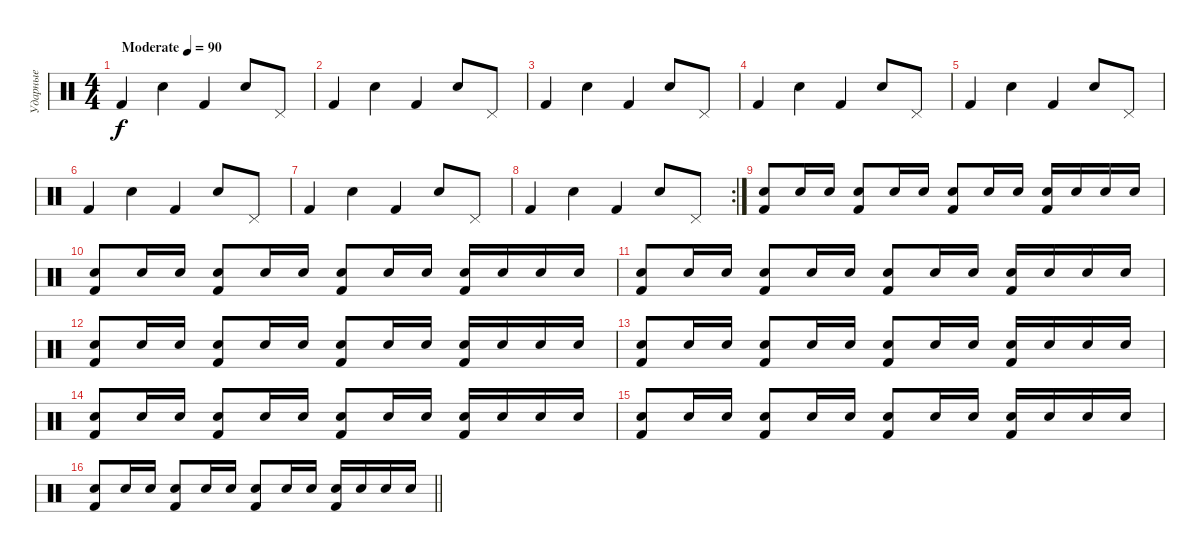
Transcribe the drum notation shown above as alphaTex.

\track ("Ударные" "Ударные") {instrument percussion}
\staff {score}
\articulation defaults
\ts (4 4)
\tempo (90 "Moderate")
\clef neutral
\ks c "Kick (hit) 2".4{dy f} "Electric Snare (hit)".4 "Kick (hit) 2".4 "Electric Snare (hit)".8 "Pedal Hi-Hat (hit)".8
|
"Kick (hit) 2".4 "Electric Snare (hit)".4 "Kick (hit) 2".4 "Electric Snare (hit)".8 "Pedal Hi-Hat (hit)".8 |
"Kick (hit) 2".4 "Electric Snare (hit)".4 "Kick (hit) 2".4 "Electric Snare (hit)".8 "Pedal Hi-Hat (hit)".8 |
"Kick (hit) 2".4 "Electric Snare (hit)".4 "Kick (hit) 2".4 "Electric Snare (hit)".8 "Pedal Hi-Hat (hit)".8 |
"Kick (hit) 2".4 "Electric Snare (hit)".4 "Kick (hit) 2".4 "Electric Snare (hit)".8 "Pedal Hi-Hat (hit)".8 |
"Kick (hit) 2".4 "Electric Snare (hit)".4 "Kick (hit) 2".4 "Electric Snare (hit)".8 "Pedal Hi-Hat (hit)".8 |
"Kick (hit) 2".4 "Electric Snare (hit)".4 "Kick (hit) 2".4 "Electric Snare (hit)".8 "Pedal Hi-Hat (hit)".8 |
\rc 2 "Kick (hit) 2".4 "Electric Snare (hit)".4 "Kick (hit) 2".4 "Electric Snare (hit)".8 "Pedal Hi-Hat (hit)".8
|
("Electric Snare (hit)" "Kick (hit) 2").8 "Electric Snare (hit)".16 "Electric Snare (hit)".16 ("Electric Snare (hit)" "Kick (hit) 2").8 "Electric Snare (hit)".16 "Electric Snare (hit)".16 ("Electric Snare (hit)" "Kick (hit) 2").8 "Electric Snare (hit)".16 "Electric Snare (hit)".16 ("Electric Snare (hit)" "Kick (hit) 2").16 "Electric Snare (hit)".16 "Electric Snare (hit)".16 "Electric Snare (hit)".16 |
("Electric Snare (hit)" "Kick (hit) 2").8 "Electric Snare (hit)".16 "Electric Snare (hit)".16 ("Electric Snare (hit)" "Kick (hit) 2").8 "Electric Snare (hit)".16 "Electric Snare (hit)".16 ("Electric Snare (hit)" "Kick (hit) 2").8 "Electric Snare (hit)".16 "Electric Snare (hit)".16 ("Electric Snare (hit)" "Kick (hit) 2").16 "Electric Snare (hit)".16 "Electric Snare (hit)".16 "Electric Snare (hit)".16 |
("Electric Snare (hit)" "Kick (hit) 2").8 "Electric Snare (hit)".16 "Electric Snare (hit)".16 ("Electric Snare (hit)" "Kick (hit) 2").8 "Electric Snare (hit)".16 "Electric Snare (hit)".16 ("Electric Snare (hit)" "Kick (hit) 2").8 "Electric Snare (hit)".16 "Electric Snare (hit)".16 ("Electric Snare (hit)" "Kick (hit) 2").16 "Electric Snare (hit)".16 "Electric Snare (hit)".16 "Electric Snare (hit)".16 |
("Electric Snare (hit)" "Kick (hit) 2").8 "Electric Snare (hit)".16 "Electric Snare (hit)".16 ("Electric Snare (hit)" "Kick (hit) 2").8 "Electric Snare (hit)".16 "Electric Snare (hit)".16 ("Electric Snare (hit)" "Kick (hit) 2").8 "Electric Snare (hit)".16 "Electric Snare (hit)".16 ("Electric Snare (hit)" "Kick (hit) 2").16 "Electric Snare (hit)".16 "Electric Snare (hit)".16 "Electric Snare (hit)".16 |
("Electric Snare (hit)" "Kick (hit) 2").8 "Electric Snare (hit)".16 "Electric Snare (hit)".16 ("Electric Snare (hit)" "Kick (hit) 2").8 "Electric Snare (hit)".16 "Electric Snare (hit)".16 ("Electric Snare (hit)" "Kick (hit) 2").8 "Electric Snare (hit)".16 "Electric Snare (hit)".16 ("Electric Snare (hit)" "Kick (hit) 2").16 "Electric Snare (hit)".16 "Electric Snare (hit)".16 "Electric Snare (hit)".16 |
("Electric Snare (hit)" "Kick (hit) 2").8 "Electric Snare (hit)".16 "Electric Snare (hit)".16 ("Electric Snare (hit)" "Kick (hit) 2").8 "Electric Snare (hit)".16 "Electric Snare (hit)".16 ("Electric Snare (hit)" "Kick (hit) 2").8 "Electric Snare (hit)".16 "Electric Snare (hit)".16 ("Electric Snare (hit)" "Kick (hit) 2").16 "Electric Snare (hit)".16 "Electric Snare (hit)".16 "Electric Snare (hit)".16 |
("Electric Snare (hit)" "Kick (hit) 2").8 "Electric Snare (hit)".16 "Electric Snare (hit)".16 ("Electric Snare (hit)" "Kick (hit) 2").8 "Electric Snare (hit)".16 "Electric Snare (hit)".16 ("Electric Snare (hit)" "Kick (hit) 2").8 "Electric Snare (hit)".16 "Electric Snare (hit)".16 ("Electric Snare (hit)" "Kick (hit) 2").16 "Electric Snare (hit)".16 "Electric Snare (hit)".16 "Electric Snare (hit)".16 |
\barLineRight lightlight
("Electric Snare (hit)" "Kick (hit) 2").8 "Electric Snare (hit)".16 "Electric Snare (hit)".16 ("Electric Snare (hit)" "Kick (hit) 2").8 "Electric Snare (hit)".16 "Electric Snare (hit)".16 ("Electric Snare (hit)" "Kick (hit) 2").8 "Electric Snare (hit)".16 "Electric Snare (hit)".16 ("Electric Snare (hit)" "Kick (hit) 2").16 "Electric Snare (hit)".16 "Electric Snare (hit)".16 "Electric Snare (hit)".16
